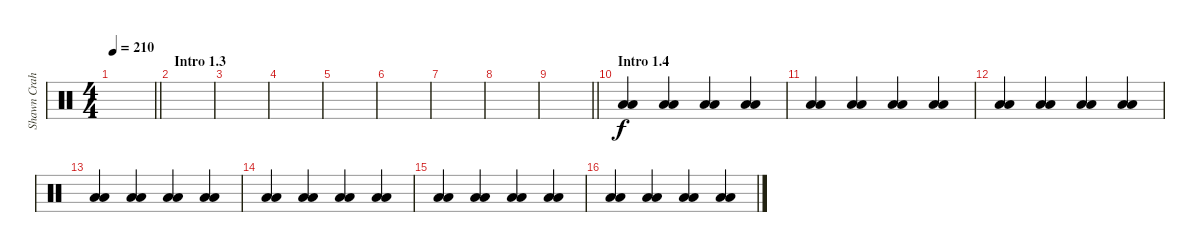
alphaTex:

\track ("Shawn Crahan" "Shawn Crah") {instrument percussion}
\staff {score}
\articulation defaults
\ts (4 4)
\tempo 210
\clef neutral
\barLineRight lightlight
\ks c
|
\section ("" "Intro 1.3")
|
|
|
|
|
|
|
\barLineRight lightlight
|
\section ("" "Intro 1.4")
("Low Floor Tom (hit)" "Low Floor Tom (hit)").4 ("Low Floor Tom (hit)" "Low Floor Tom (hit)").4 ("Low Floor Tom (hit)" "Low Floor Tom (hit)").4 ("Low Floor Tom (hit)" "Low Floor Tom (hit)").4 |
("Low Floor Tom (hit)" "Low Floor Tom (hit)").4 ("Low Floor Tom (hit)" "Low Floor Tom (hit)").4 ("Low Floor Tom (hit)" "Low Floor Tom (hit)").4 ("Low Floor Tom (hit)" "Low Floor Tom (hit)").4 |
("Low Floor Tom (hit)" "Low Floor Tom (hit)").4 ("Low Floor Tom (hit)" "Low Floor Tom (hit)").4 ("Low Floor Tom (hit)" "Low Floor Tom (hit)").4 ("Low Floor Tom (hit)" "Low Floor Tom (hit)").4 |
("Low Floor Tom (hit)" "Low Floor Tom (hit)").4 ("Low Floor Tom (hit)" "Low Floor Tom (hit)").4 ("Low Floor Tom (hit)" "Low Floor Tom (hit)").4 ("Low Floor Tom (hit)" "Low Floor Tom (hit)").4 |
("Low Floor Tom (hit)" "Low Floor Tom (hit)").4 ("Low Floor Tom (hit)" "Low Floor Tom (hit)").4 ("Low Floor Tom (hit)" "Low Floor Tom (hit)").4 ("Low Floor Tom (hit)" "Low Floor Tom (hit)").4 |
("Low Floor Tom (hit)" "Low Floor Tom (hit)").4 ("Low Floor Tom (hit)" "Low Floor Tom (hit)").4 ("Low Floor Tom (hit)" "Low Floor Tom (hit)").4 ("Low Floor Tom (hit)" "Low Floor Tom (hit)").4 |
("Low Floor Tom (hit)" "Low Floor Tom (hit)").4 ("Low Floor Tom (hit)" "Low Floor Tom (hit)").4 ("Low Floor Tom (hit)" "Low Floor Tom (hit)").4 ("Low Floor Tom (hit)" "Low Floor Tom (hit)").4
